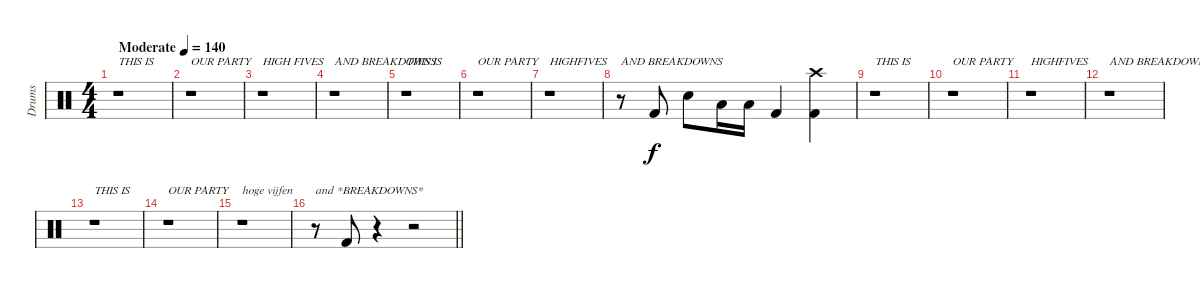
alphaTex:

\track ("Drums" "Drums") {instrument percussion}
\staff {score}
\articulation defaults
\ts (4 4)
\tempo (140 "Moderate")
\clef neutral
\ks c
r.1{txt "THIS IS" dy f} |
r.1{txt "OUR PARTY"} |
r.1{txt "HIGH FIVES"} |
r.1{txt "AND BREAKDOWNS"} |
r.1{txt "THIS IS"} |
r.1{txt "OUR PARTY"} |
r.1{txt "HIGHFIVES"} |
r.8{txt "AND BREAKDOWNS"} "Kick (hit) 2".8 "Snare (hit) 2".8 "Low Floor Tom (hit)".16 "Low Floor Tom (hit)".16 "Kick (hit) 2".4 ("Crash high (hit)" "Kick (hit) 2").4 |
r.1{txt "THIS IS"} |
r.1{txt "OUR PARTY"} |
r.1{txt "HIGHFIVES"} |
r.1{txt "AND BREAKDOWNS"} |
r.1{txt "THIS IS"} |
r.1{txt "OUR PARTY"} |
r.1{txt "hoge vijfen"} |
\barLineRight lightlight
r.8{txt "and *BREAKDOWNS*"} "Kick (hit) 2".8 r.4 r.2
